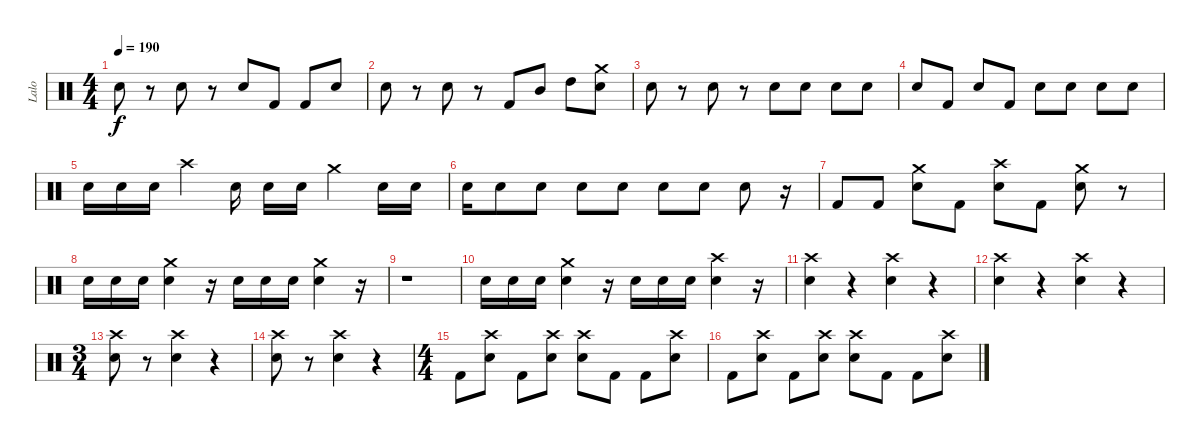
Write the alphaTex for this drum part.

\track ("Lalo" "Lalo") {instrument percussion}
\staff {score}
\articulation defaults
\ts (4 4)
\tempo 190
\clef neutral
\ks c "Electric Snare (hit)".8{dy f}
r.8 "Electric Snare (hit)".8 r.8 "Electric Snare (hit)".8 "Kick (hit) 2".8 "Kick (hit) 2".8 "Electric Snare (hit)".8 |
"Electric Snare (hit)".8 r.8 "Electric Snare (hit)".8 r.8 "Kick (hit) 2".8 "Mid Tom (hit)".8 "High Tom (hit)".8 ("Crash medium (hit)" "Electric Snare (hit)").8 |
"Electric Snare (hit)".8 r.8 "Electric Snare (hit)".8 r.8 "Electric Snare (hit)".8 "Electric Snare (hit)".8 "Electric Snare (hit)".8 "Electric Snare (hit)".8 |
"Electric Snare (hit)".8 "Kick (hit) 2".8 "Electric Snare (hit)".8 "Kick (hit) 2".8 "Electric Snare (hit)".8 "Electric Snare (hit)".8 "Electric Snare (hit)".8 "Electric Snare (hit)".8 |
"Electric Snare (hit)".16 "Electric Snare (hit)".16 "Electric Snare (hit)".16 "Crash high (hit)".4 "Electric Snare (hit)".16 "Electric Snare (hit)".16 "Electric Snare (hit)".16 "Crash medium (hit)".4 "Electric Snare (hit)".16 "Electric Snare (hit)".16 |
"Electric Snare (hit)".16 "Electric Snare (hit)".8 "Electric Snare (hit)".8 "Electric Snare (hit)".8 "Electric Snare (hit)".8 "Electric Snare (hit)".8 "Electric Snare (hit)".8 "Electric Snare (hit)".8 r.16 |
"Kick (hit) 2".8 "Kick (hit) 2".8 ("Crash medium (hit)" "Electric Snare (hit)").8 "Kick (hit) 2".8 ("Crash high (hit)" "Electric Snare (hit)").8 "Kick (hit) 2".8 ("Crash medium (hit)" "Electric Snare (hit)").8 r.8 |
"Electric Snare (hit)".16 "Electric Snare (hit)".16 "Electric Snare (hit)".16 ("Crash medium (hit)" "Electric Snare (hit)").4 r.16 "Electric Snare (hit)".16 "Electric Snare (hit)".16 "Electric Snare (hit)".16 ("Crash medium (hit)" "Electric Snare (hit)").4 r.16 |
r.1 |
"Electric Snare (hit)".16 "Electric Snare (hit)".16 "Electric Snare (hit)".16 ("Crash medium (hit)" "Electric Snare (hit)").4 r.16 "Electric Snare (hit)".16 "Electric Snare (hit)".16 "Electric Snare (hit)".16 ("Crash high (hit)" "Electric Snare (hit)").4 r.16 |
("Crash high (hit)" "Electric Snare (hit)").4 r.4 ("Crash high (hit)" "Electric Snare (hit)").4 r.4 |
("Electric Snare (hit)" "Crash high (hit)").4 r.4 ("Electric Snare (hit)" "Crash high (hit)").4 r.4 |
\ts (3 4)
("Crash high (hit)" "Electric Snare (hit)").8 r.8 ("Crash high (hit)" "Electric Snare (hit)").4 r.4 |
("Crash high (hit)" "Electric Snare (hit)").8 r.8 ("Crash high (hit)" "Electric Snare (hit)").4 r.4 |
\ts (4 4)
"Kick (hit) 2".8 ("Crash high (hit)" "Electric Snare (hit)").8 "Kick (hit) 2".8 ("Crash high (hit)" "Electric Snare (hit)").8 ("Crash high (hit)" "Electric Snare (hit)").8 "Kick (hit) 2".8 "Kick (hit) 2".8 ("Crash high (hit)" "Electric Snare (hit)").8 |
"Kick (hit) 2".8 ("Crash high (hit)" "Electric Snare (hit)").8 "Kick (hit) 2".8 ("Crash high (hit)" "Electric Snare (hit)").8 ("Crash high (hit)" "Electric Snare (hit)").8 "Kick (hit) 2".8 "Kick (hit) 2".8 ("Crash high (hit)" "Electric Snare (hit)").8
